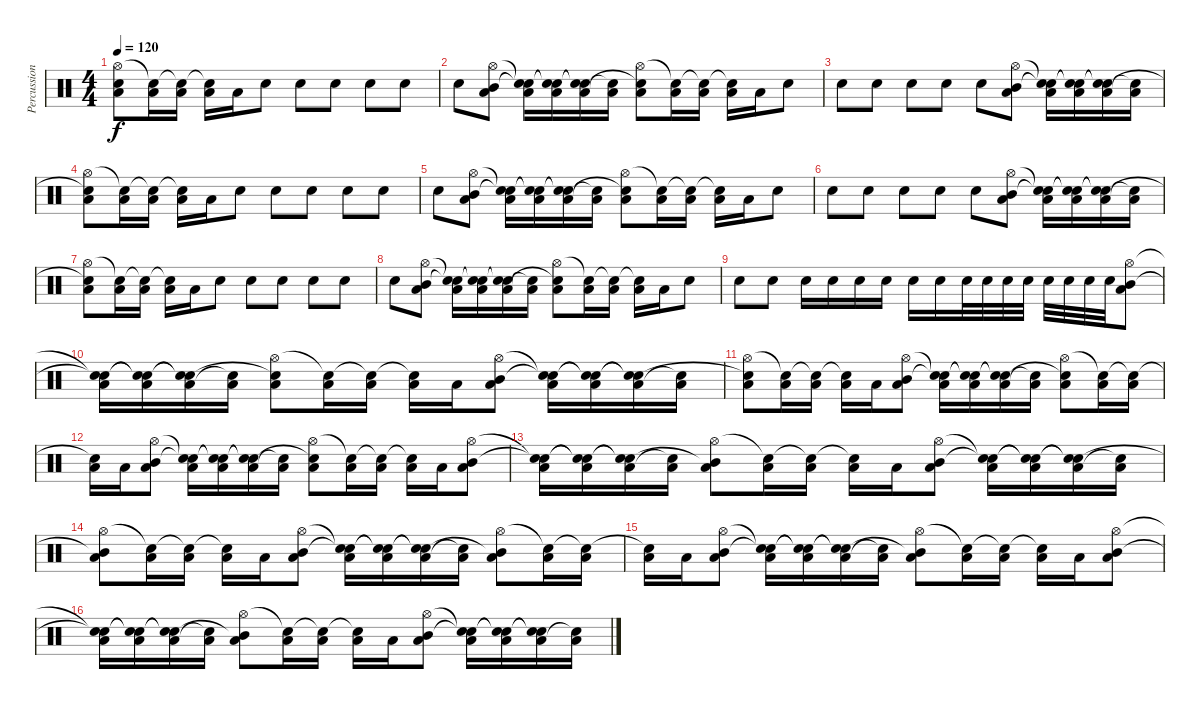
\track ("Percussion" "Percussion") {instrument percussion}
\staff {score}
\articulation defaults
\ts (4 4)
\tempo 120
\clef neutral
\ks c
("Hi-Hat (open)" "Low Tom (hit)" "Snare (hit)"{t}).8{dy f} ("Snare (hit)"{t} "Low Tom (hit)").16 ("Snare (hit)"{t} "Low Tom (hit)").16 ("Snare (hit)"{t} "Low Tom (hit)").16 "Low Tom (hit)".16 "Electric Snare (hit)".8 "Electric Snare (hit)".8 "Electric Snare (hit)".8 "Electric Snare (hit)".8 "Electric Snare (hit)".8 |
"Electric Snare (hit)".8 ("Hi-Hat (open)" "Low Tom (hit)" "Mid Tom (hit)").8 ("Snare (hit)"{t} "Low Tom (hit)" "Snare (hit)"{t}).16 ("Snare (hit)"{t} "Low Tom (hit)" "Snare (hit)"{t}).16 ("Snare (hit)"{t} "Low Tom (hit)" "Snare (hit)"{t}).16 ("Low Tom (hit)" "Snare (hit)"{t}).16 ("Hi-Hat (open)" "Low Tom (hit)" "Snare (hit)"{t}).8 ("Snare (hit)"{t} "Low Tom (hit)").16 ("Snare (hit)"{t} "Low Tom (hit)").16 ("Snare (hit)"{t} "Low Tom (hit)").16 "Low Tom (hit)".16 "Electric Snare (hit)".8 |
"Electric Snare (hit)".8 "Electric Snare (hit)".8 "Electric Snare (hit)".8 "Electric Snare (hit)".8 "Electric Snare (hit)".8 ("Hi-Hat (open)" "Low Tom (hit)" "Mid Tom (hit)").8 ("Snare (hit)"{t} "Low Tom (hit)" "Snare (hit)"{t}).16 ("Snare (hit)"{t} "Low Tom (hit)" "Snare (hit)"{t}).16 ("Snare (hit)"{t} "Low Tom (hit)" "Snare (hit)"{t}).16 ("Low Tom (hit)" "Snare (hit)"{t}).16 |
("Hi-Hat (open)" "Low Tom (hit)" "Snare (hit)"{t}).8 ("Snare (hit)"{t} "Low Tom (hit)").16 ("Snare (hit)"{t} "Low Tom (hit)").16 ("Snare (hit)"{t} "Low Tom (hit)").16 "Low Tom (hit)".16 "Electric Snare (hit)".8 "Electric Snare (hit)".8 "Electric Snare (hit)".8 "Electric Snare (hit)".8 "Electric Snare (hit)".8 |
"Electric Snare (hit)".8 ("Hi-Hat (open)" "Low Tom (hit)" "Mid Tom (hit)").8 ("Snare (hit)"{t} "Low Tom (hit)" "Snare (hit)"{t}).16 ("Snare (hit)"{t} "Low Tom (hit)" "Snare (hit)"{t}).16 ("Snare (hit)"{t} "Low Tom (hit)" "Snare (hit)"{t}).16 ("Low Tom (hit)" "Snare (hit)"{t}).16 ("Hi-Hat (open)" "Low Tom (hit)" "Snare (hit)"{t}).8 ("Snare (hit)"{t} "Low Tom (hit)").16 ("Snare (hit)"{t} "Low Tom (hit)").16 ("Snare (hit)"{t} "Low Tom (hit)").16 "Low Tom (hit)".16 "Electric Snare (hit)".8 |
"Electric Snare (hit)".8 "Electric Snare (hit)".8 "Electric Snare (hit)".8 "Electric Snare (hit)".8 "Electric Snare (hit)".8 ("Hi-Hat (open)" "Low Tom (hit)" "Mid Tom (hit)").8 ("Snare (hit)"{t} "Low Tom (hit)" "Snare (hit)"{t}).16 ("Snare (hit)"{t} "Low Tom (hit)" "Snare (hit)"{t}).16 ("Snare (hit)"{t} "Low Tom (hit)" "Snare (hit)"{t}).16 ("Low Tom (hit)" "Snare (hit)"{t}).16 |
("Hi-Hat (open)" "Low Tom (hit)" "Snare (hit)"{t}).8 ("Snare (hit)"{t} "Low Tom (hit)").16 ("Snare (hit)"{t} "Low Tom (hit)").16 ("Snare (hit)"{t} "Low Tom (hit)").16 "Low Tom (hit)".16 "Electric Snare (hit)".8 "Electric Snare (hit)".8 "Electric Snare (hit)".8 "Electric Snare (hit)".8 "Electric Snare (hit)".8 |
"Electric Snare (hit)".8 ("Hi-Hat (open)" "Low Tom (hit)" "Mid Tom (hit)").8 ("Snare (hit)"{t} "Low Tom (hit)" "Snare (hit)"{t}).16 ("Snare (hit)"{t} "Low Tom (hit)" "Snare (hit)"{t}).16 ("Snare (hit)"{t} "Low Tom (hit)" "Snare (hit)"{t}).16 ("Low Tom (hit)" "Snare (hit)"{t}).16 ("Hi-Hat (open)" "Low Tom (hit)" "Snare (hit)"{t}).8 ("Snare (hit)"{t} "Low Tom (hit)").16 ("Snare (hit)"{t} "Low Tom (hit)").16 ("Snare (hit)"{t} "Low Tom (hit)").16 "Low Tom (hit)".16 "Electric Snare (hit)".8 |
"Electric Snare (hit)".8 "Electric Snare (hit)".8 "Electric Snare (hit)".16 "Electric Snare (hit)".16 "Electric Snare (hit)".16 "Electric Snare (hit)".16 "Electric Snare (hit)".16 "Electric Snare (hit)".16 "Electric Snare (hit)".32 "Electric Snare (hit)".32 "Electric Snare (hit)".32 "Electric Snare (hit)".32 "Electric Snare (hit)".32 "Electric Snare (hit)".32 "Electric Snare (hit)".32 "Electric Snare (hit)".32 ("Hi-Hat (open)" "Low Tom (hit)" "Mid Tom (hit)").8 |
("Snare (hit)"{t} "Low Tom (hit)" "Snare (hit)"{t}).16 ("Snare (hit)"{t} "Low Tom (hit)" "Snare (hit)"{t}).16 ("Snare (hit)"{t} "Low Tom (hit)" "Snare (hit)"{t}).16 ("Low Tom (hit)" "Snare (hit)"{t}).16 ("Hi-Hat (open)" "Low Tom (hit)" "Snare (hit)"{t}).8 ("Snare (hit)"{t} "Low Tom (hit)").16 ("Snare (hit)"{t} "Low Tom (hit)").16 ("Snare (hit)"{t} "Low Tom (hit)").16 "Low Tom (hit)".16 ("Hi-Hat (open)" "Low Tom (hit)" "Mid Tom (hit)").8 ("Snare (hit)"{t} "Low Tom (hit)" "Snare (hit)"{t}).16 ("Snare (hit)"{t} "Low Tom (hit)" "Snare (hit)"{t}).16 ("Snare (hit)"{t} "Low Tom (hit)" "Snare (hit)"{t}).16 ("Low Tom (hit)" "Snare (hit)"{t}).16 |
("Hi-Hat (open)" "Low Tom (hit)" "Snare (hit)"{t}).8 ("Snare (hit)"{t} "Low Tom (hit)").16 ("Snare (hit)"{t} "Low Tom (hit)").16 ("Snare (hit)"{t} "Low Tom (hit)").16 "Low Tom (hit)".16 ("Hi-Hat (open)" "Low Tom (hit)" "Mid Tom (hit)").8 ("Snare (hit)"{t} "Low Tom (hit)" "Snare (hit)"{t}).16 ("Snare (hit)"{t} "Low Tom (hit)" "Snare (hit)"{t}).16 ("Snare (hit)"{t} "Low Tom (hit)" "Snare (hit)"{t}).16 ("Low Tom (hit)" "Snare (hit)"{t}).16 ("Hi-Hat (open)" "Low Tom (hit)" "Snare (hit)"{t}).8 ("Snare (hit)"{t} "Low Tom (hit)").16 ("Snare (hit)"{t} "Low Tom (hit)").16 |
("Snare (hit)"{t} "Low Tom (hit)").16 "Low Tom (hit)".16 ("Hi-Hat (open)" "Low Tom (hit)" "Mid Tom (hit)").8 ("Snare (hit)"{t} "Low Tom (hit)" "Snare (hit)"{t}).16 ("Snare (hit)"{t} "Low Tom (hit)" "Snare (hit)"{t}).16 ("Snare (hit)"{t} "Low Tom (hit)" "Snare (hit)"{t}).16 ("Low Tom (hit)" "Snare (hit)"{t}).16 ("Hi-Hat (open)" "Low Tom (hit)" "Snare (hit)"{t}).8 ("Snare (hit)"{t} "Low Tom (hit)").16 ("Snare (hit)"{t} "Low Tom (hit)").16 ("Snare (hit)"{t} "Low Tom (hit)").16 "Low Tom (hit)".16 ("Hi-Hat (open)" "Low Tom (hit)" "Mid Tom (hit)").8 |
("Snare (hit)"{t} "Low Tom (hit)" "Snare (hit)"{t}).16 ("Snare (hit)"{t} "Low Tom (hit)" "Snare (hit)"{t}).16 ("Snare (hit)"{t} "Low Tom (hit)" "Snare (hit)"{t}).16 ("Low Tom (hit)" "Snare (hit)"{t}).16 ("Hi-Hat (open)" "Low Tom (hit)" "Mid Tom (hit)"{t}).8 ("Snare (hit)"{t} "Low Tom (hit)").16 ("Snare (hit)"{t} "Low Tom (hit)").16 ("Snare (hit)"{t} "Low Tom (hit)").16 "Low Tom (hit)".16 ("Hi-Hat (open)" "Low Tom (hit)" "Mid Tom (hit)").8 ("Snare (hit)"{t} "Low Tom (hit)" "Snare (hit)"{t}).16 ("Snare (hit)"{t} "Low Tom (hit)" "Snare (hit)"{t}).16 ("Snare (hit)"{t} "Low Tom (hit)" "Snare (hit)"{t}).16 ("Low Tom (hit)" "Snare (hit)"{t}).16 |
("Hi-Hat (open)" "Low Tom (hit)" "Mid Tom (hit)"{t}).8 ("Snare (hit)"{t} "Low Tom (hit)").16 ("Snare (hit)"{t} "Low Tom (hit)").16 ("Snare (hit)"{t} "Low Tom (hit)").16 "Low Tom (hit)".16 ("Hi-Hat (open)" "Low Tom (hit)" "Mid Tom (hit)").8 ("Snare (hit)"{t} "Low Tom (hit)" "Snare (hit)"{t}).16 ("Snare (hit)"{t} "Low Tom (hit)" "Snare (hit)"{t}).16 ("Snare (hit)"{t} "Low Tom (hit)" "Snare (hit)"{t}).16 ("Low Tom (hit)" "Snare (hit)"{t}).16 ("Hi-Hat (open)" "Low Tom (hit)" "Mid Tom (hit)"{t}).8 ("Snare (hit)"{t} "Low Tom (hit)").16 ("Snare (hit)"{t} "Low Tom (hit)").16 |
("Snare (hit)"{t} "Low Tom (hit)").16 "Low Tom (hit)".16 ("Hi-Hat (open)" "Low Tom (hit)" "Mid Tom (hit)").8 ("Snare (hit)"{t} "Low Tom (hit)" "Snare (hit)"{t}).16 ("Snare (hit)"{t} "Low Tom (hit)" "Snare (hit)"{t}).16 ("Snare (hit)"{t} "Low Tom (hit)" "Snare (hit)"{t}).16 ("Low Tom (hit)" "Snare (hit)"{t}).16 ("Hi-Hat (open)" "Low Tom (hit)" "Mid Tom (hit)"{t}).8 ("Snare (hit)"{t} "Low Tom (hit)").16 ("Snare (hit)"{t} "Low Tom (hit)").16 ("Snare (hit)"{t} "Low Tom (hit)").16 "Low Tom (hit)".16 ("Hi-Hat (open)" "Low Tom (hit)" "Mid Tom (hit)").8 |
("Snare (hit)"{t} "Low Tom (hit)" "Snare (hit)"{t}).16 ("Snare (hit)"{t} "Low Tom (hit)" "Snare (hit)"{t}).16 ("Snare (hit)"{t} "Low Tom (hit)" "Snare (hit)"{t}).16 ("Low Tom (hit)" "Snare (hit)"{t}).16 ("Hi-Hat (open)" "Low Tom (hit)" "Mid Tom (hit)"{t}).8 ("Snare (hit)"{t} "Low Tom (hit)").16 ("Snare (hit)"{t} "Low Tom (hit)").16 ("Snare (hit)"{t} "Low Tom (hit)").16 "Low Tom (hit)".16 ("Hi-Hat (open)" "Low Tom (hit)" "Mid Tom (hit)").8 ("Snare (hit)"{t} "Low Tom (hit)" "Snare (hit)"{t}).16 ("Snare (hit)"{t} "Low Tom (hit)" "Snare (hit)"{t}).16 ("Snare (hit)"{t} "Low Tom (hit)" "Snare (hit)"{t}).16 ("Low Tom (hit)" "Snare (hit)"{t}).16
